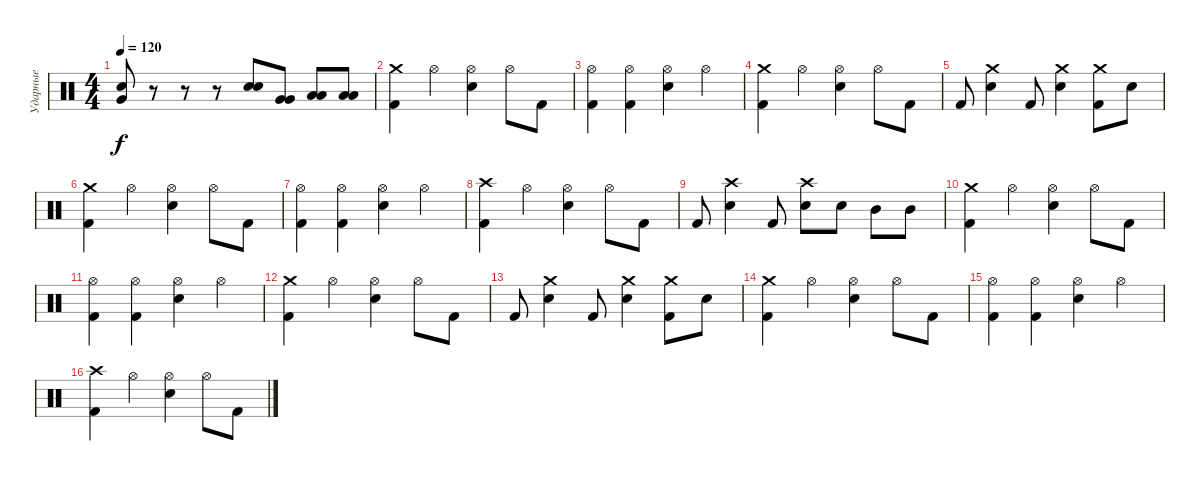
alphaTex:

\track ("Ударные" "Ударные") {instrument percussion}
\staff {score}
\articulation defaults
\ts (4 4)
\tempo 120
\clef neutral
\ks c
("Snare (hit) 2" "Very Low Tom (hit)").8{dy f} r.8 r.8 r.8 ("Snare (hit) 2" "Snare (hit) 2").8 ("Very Low Tom (hit)" "Very Low Tom (hit)").8 ("Low Floor Tom (hit)" "Low Floor Tom (hit)").8 ("Low Floor Tom (hit)" "Low Floor Tom (hit)").8 |
("Crash medium (hit)" "Kick (hit) 2").4 "Hi-Hat (open)".4 ("Hi-Hat (open)" "Snare (hit) 2").4 "Hi-Hat (open)".8 "Kick (hit) 2".8 |
("Hi-Hat (open)" "Kick (hit) 2").4 ("Hi-Hat (open)" "Kick (hit) 2").4 ("Hi-Hat (open)" "Snare (hit) 2").4 "Hi-Hat (open)".4 |
("Crash medium (hit)" "Kick (hit) 2").4 "Hi-Hat (open)".4 ("Hi-Hat (open)" "Snare (hit) 2").4 "Hi-Hat (open)".8 "Kick (hit) 2".8 |
"Kick (hit) 2".8 ("Crash medium (hit)" "Snare (hit) 2").4 "Kick (hit) 2".8 ("Crash medium (hit)" "Snare (hit) 2").4 ("Crash medium (hit)" "Kick (hit) 2").8 "Snare (hit) 2".8 |
("Crash medium (hit)" "Kick (hit) 2").4 "Hi-Hat (open)".4 ("Hi-Hat (open)" "Snare (hit) 2").4 "Hi-Hat (open)".8 "Kick (hit) 2".8 |
("Hi-Hat (open)" "Kick (hit) 2").4 ("Hi-Hat (open)" "Kick (hit) 2").4 ("Hi-Hat (open)" "Snare (hit) 2").4 "Hi-Hat (open)".4 |
("Crash high (hit)" "Kick (hit) 2").4 "Hi-Hat (open)".4 ("Hi-Hat (open)" "Snare (hit) 2").4 "Hi-Hat (open)".8 "Kick (hit) 2".8 |
"Kick (hit) 2".8 ("Crash high (hit)" "Snare (hit) 2").4 "Kick (hit) 2".8 ("Crash high (hit)" "Snare (hit) 2").8 "Snare (hit) 2".8 "Mid Tom (hit)".8 "Mid Tom (hit)".8 |
("Crash medium (hit)" "Kick (hit) 2").4 "Hi-Hat (open)".4 ("Hi-Hat (open)" "Snare (hit) 2").4 "Hi-Hat (open)".8 "Kick (hit) 2".8 |
("Hi-Hat (open)" "Kick (hit) 2").4 ("Hi-Hat (open)" "Kick (hit) 2").4 ("Hi-Hat (open)" "Snare (hit) 2").4 "Hi-Hat (open)".4 |
("Crash medium (hit)" "Kick (hit) 2").4 "Hi-Hat (open)".4 ("Hi-Hat (open)" "Snare (hit) 2").4 "Hi-Hat (open)".8 "Kick (hit) 2".8 |
"Kick (hit) 2".8 ("Crash medium (hit)" "Snare (hit) 2").4 "Kick (hit) 2".8 ("Crash medium (hit)" "Snare (hit) 2").4 ("Crash medium (hit)" "Kick (hit) 2").8 "Snare (hit) 2".8 |
("Crash medium (hit)" "Kick (hit) 2").4 "Hi-Hat (open)".4 ("Hi-Hat (open)" "Snare (hit) 2").4 "Hi-Hat (open)".8 "Kick (hit) 2".8 |
("Hi-Hat (open)" "Kick (hit) 2").4 ("Hi-Hat (open)" "Kick (hit) 2").4 ("Hi-Hat (open)" "Snare (hit) 2").4 "Hi-Hat (open)".4 |
("Crash high (hit)" "Kick (hit) 2").4 "Hi-Hat (open)".4 ("Hi-Hat (open)" "Snare (hit) 2").4 "Hi-Hat (open)".8 "Kick (hit) 2".8
